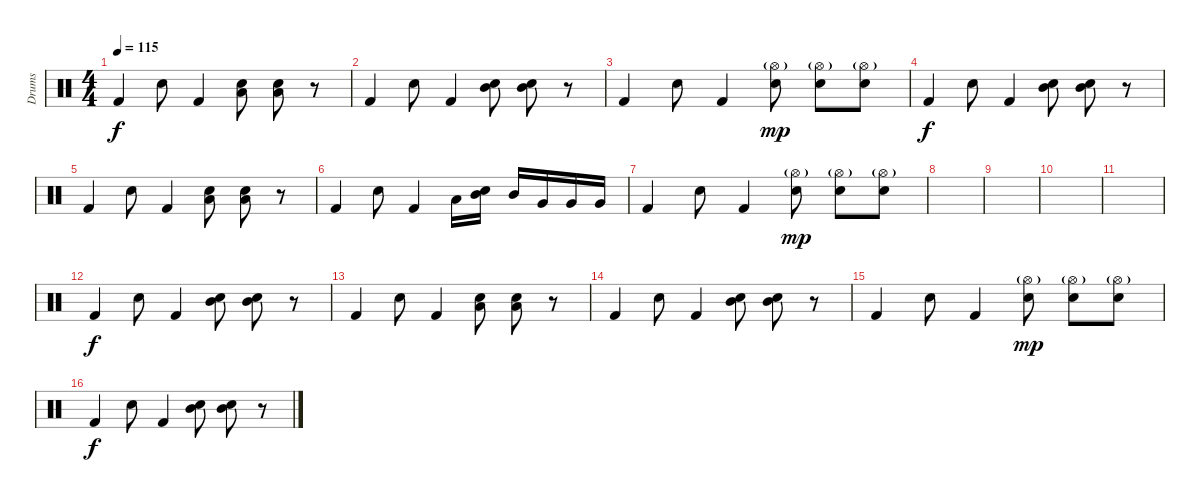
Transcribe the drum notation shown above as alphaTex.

\track ("Drums" "Drums") {instrument percussion}
\staff {score}
\articulation defaults
\ts (4 4)
\tempo 115
\clef neutral
\ks c "Kick (hit) 2".4{dy f} "Snare (hit) 2".8 "Kick (hit) 2".4
("Low Tom (hit)" "Snare (hit) 2").8 ("Low Tom (hit)" "Snare (hit) 2").8 r.8 |
"Kick (hit) 2".4 "Snare (hit) 2".8 "Kick (hit) 2".4 ("Mid Tom (hit)" "Snare (hit) 2").8 ("Mid Tom (hit)" "Snare (hit) 2").8 r.8 |
"Kick (hit) 2".4 "Snare (hit) 2".8 "Kick (hit) 2".4 ("Hi-Hat (open)"{g} "Snare (hit) 2").8{dy mp} ("Hi-Hat (open)"{g} "Snare (hit) 2").8 ("Hi-Hat (open)"{g} "Snare (hit) 2").8 |
"Kick (hit) 2".4{dy f} "Snare (hit) 2".8 "Kick (hit) 2".4 ("Mid Tom (hit)" "Snare (hit) 2").8 ("Mid Tom (hit)" "Snare (hit) 2").8 r.8 |
"Kick (hit) 2".4 "Snare (hit) 2".8 "Kick (hit) 2".4 ("Low Tom (hit)" "Snare (hit) 2").8 ("Low Tom (hit)" "Snare (hit) 2").8 r.8 |
"Kick (hit) 2".4 "Snare (hit) 2".8 "Kick (hit) 2".4 "Low Tom (hit)".16 ("Mid Tom (hit)" "Snare (hit) 2").16 "Mid Tom (hit)".16 "Very Low Tom (hit)".16 "Very Low Tom (hit)".16 "Very Low Tom (hit)".16 |
"Kick (hit) 2".4 "Snare (hit) 2".8 "Kick (hit) 2".4 ("Hi-Hat (open)"{g} "Snare (hit) 2").8{dy mp} ("Hi-Hat (open)"{g} "Snare (hit) 2").8 ("Hi-Hat (open)"{g} "Snare (hit) 2").8 |
|
|
|
|
"Kick (hit) 2".4{dy f} "Snare (hit) 2".8 "Kick (hit) 2".4 ("Mid Tom (hit)" "Snare (hit) 2").8 ("Mid Tom (hit)" "Snare (hit) 2").8 r.8 |
"Kick (hit) 2".4 "Snare (hit) 2".8 "Kick (hit) 2".4 ("Low Tom (hit)" "Snare (hit) 2").8 ("Low Tom (hit)" "Snare (hit) 2").8 r.8 |
"Kick (hit) 2".4 "Snare (hit) 2".8 "Kick (hit) 2".4 ("Mid Tom (hit)" "Snare (hit) 2").8 ("Mid Tom (hit)" "Snare (hit) 2").8 r.8 |
"Kick (hit) 2".4 "Snare (hit) 2".8 "Kick (hit) 2".4 ("Hi-Hat (open)"{g} "Snare (hit) 2").8{dy mp} ("Hi-Hat (open)"{g} "Snare (hit) 2").8 ("Hi-Hat (open)"{g} "Snare (hit) 2").8 |
"Kick (hit) 2".4{dy f} "Snare (hit) 2".8 "Kick (hit) 2".4 ("Mid Tom (hit)" "Snare (hit) 2").8 ("Mid Tom (hit)" "Snare (hit) 2").8 r.8
